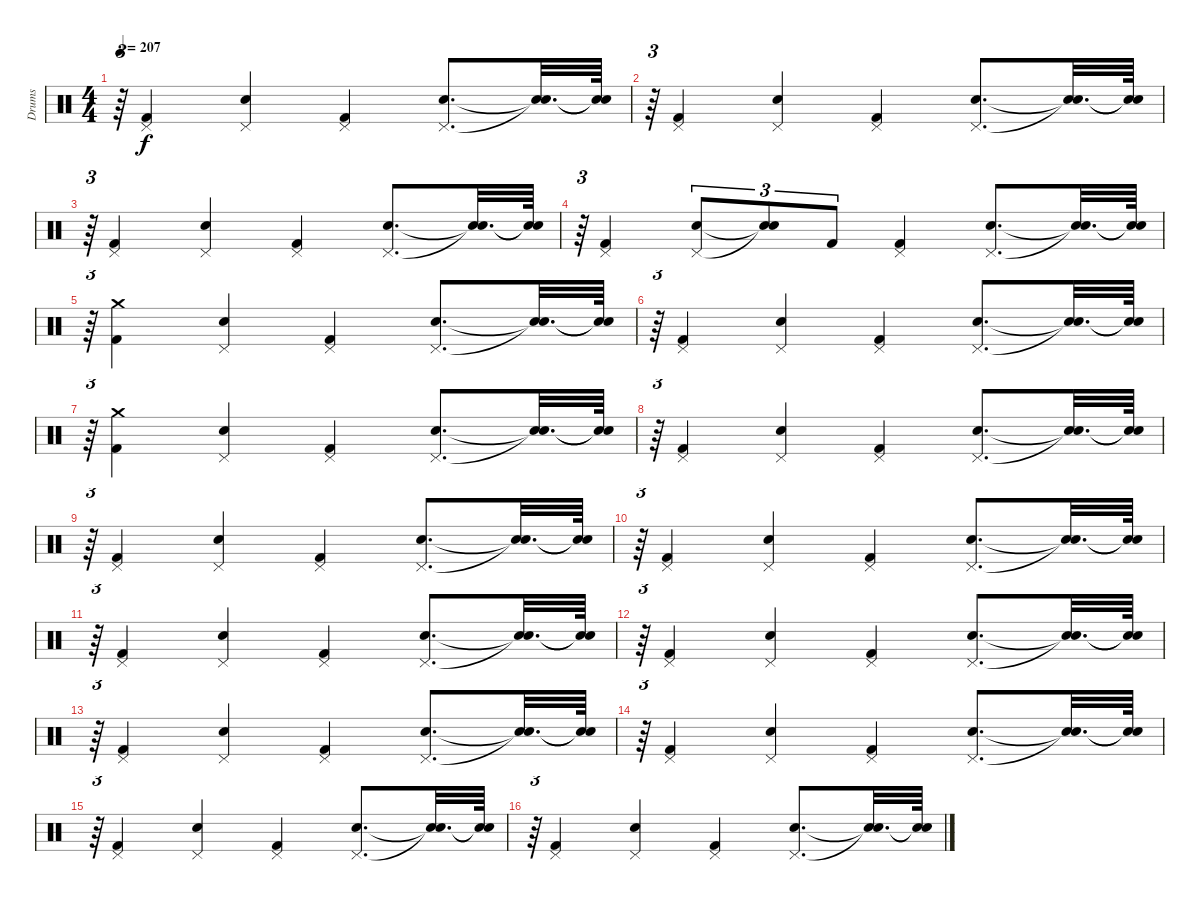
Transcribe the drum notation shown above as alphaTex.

\track ("Drums" "Drums") {instrument percussion}
\staff {score}
\articulation defaults
\ts (4 4)
\tempo 207
\clef neutral
\ks c
r.64{tu (3 2) dy f} ("Pedal Hi-Hat (hit)" "Kick (hit) 2").4 ("Pedal Hi-Hat (hit)" "Snare (hit) 2").4 ("Pedal Hi-Hat (hit)" "Kick (hit) 2").4 ("Pedal Hi-Hat (hit)" "Snare (hit) 2").8{d} ("Snare (hit)"{t} "Snare (hit)"{t}).32{d} ("Snare (hit)"{t} "Snare (hit)"{t}).64 |
r.64{tu (3 2)} ("Pedal Hi-Hat (hit)" "Kick (hit) 2").4 ("Pedal Hi-Hat (hit)" "Snare (hit) 2").4 ("Pedal Hi-Hat (hit)" "Kick (hit) 2").4 ("Pedal Hi-Hat (hit)" "Snare (hit) 2").8{d} ("Snare (hit)"{t} "Snare (hit)"{t}).32{d} ("Snare (hit)"{t} "Snare (hit)"{t}).64 |
r.64{tu (3 2)} ("Pedal Hi-Hat (hit)" "Kick (hit) 2").4 ("Pedal Hi-Hat (hit)" "Snare (hit) 2").4 ("Pedal Hi-Hat (hit)" "Kick (hit) 2").4 ("Pedal Hi-Hat (hit)" "Snare (hit) 2").8{d} ("Snare (hit)"{t} "Snare (hit)"{t}).32{d} ("Snare (hit)"{t} "Snare (hit)"{t}).64 |
r.64{tu (3 2)} ("Pedal Hi-Hat (hit)" "Kick (hit) 2").4 ("Pedal Hi-Hat (hit)" "Snare (hit) 2").8{tu (3 2)} ("Snare (hit)"{t} "Snare (hit)"{t}).8{tu (3 2)} "Kick (hit) 2".8{tu (3 2)} ("Pedal Hi-Hat (hit)" "Kick (hit) 2").4 ("Pedal Hi-Hat (hit)" "Snare (hit) 2").8{d} ("Snare (hit)"{t} "Snare (hit)"{t}).32{d} ("Snare (hit)"{t} "Snare (hit)"{t}).64 |
r.64{tu (3 2)} ("Kick (hit) 2" "Crash medium (hit)").4 ("Pedal Hi-Hat (hit)" "Snare (hit) 2").4 ("Pedal Hi-Hat (hit)" "Kick (hit) 2").4 ("Pedal Hi-Hat (hit)" "Snare (hit) 2").8{d} ("Snare (hit)"{t} "Snare (hit)"{t}).32{d} ("Snare (hit)"{t} "Snare (hit)"{t}).64 |
r.64{tu (3 2)} ("Pedal Hi-Hat (hit)" "Kick (hit) 2").4 ("Pedal Hi-Hat (hit)" "Snare (hit) 2").4 ("Pedal Hi-Hat (hit)" "Kick (hit) 2").4 ("Pedal Hi-Hat (hit)" "Snare (hit) 2").8{d} ("Snare (hit)"{t} "Snare (hit)"{t}).32{d} ("Snare (hit)"{t} "Snare (hit)"{t}).64 |
r.64{tu (3 2)} ("Kick (hit) 2" "Crash medium (hit)").4 ("Pedal Hi-Hat (hit)" "Snare (hit) 2").4 ("Pedal Hi-Hat (hit)" "Kick (hit) 2").4 ("Pedal Hi-Hat (hit)" "Snare (hit) 2").8{d} ("Snare (hit)"{t} "Snare (hit)"{t}).32{d} ("Snare (hit)"{t} "Snare (hit)"{t}).64 |
r.64{tu (3 2)} ("Pedal Hi-Hat (hit)" "Kick (hit) 2").4 ("Pedal Hi-Hat (hit)" "Snare (hit) 2").4 ("Pedal Hi-Hat (hit)" "Kick (hit) 2").4 ("Pedal Hi-Hat (hit)" "Snare (hit) 2").8{d} ("Snare (hit)"{t} "Snare (hit)"{t}).32{d} ("Snare (hit)"{t} "Snare (hit)"{t}).64 |
r.64{tu (3 2)} ("Pedal Hi-Hat (hit)" "Kick (hit) 2").4 ("Pedal Hi-Hat (hit)" "Snare (hit) 2").4 ("Pedal Hi-Hat (hit)" "Kick (hit) 2").4 ("Pedal Hi-Hat (hit)" "Snare (hit) 2").8{d} ("Snare (hit)"{t} "Snare (hit)"{t}).32{d} ("Snare (hit)"{t} "Snare (hit)"{t}).64 |
r.64{tu (3 2)} ("Pedal Hi-Hat (hit)" "Kick (hit) 2").4 ("Pedal Hi-Hat (hit)" "Snare (hit) 2").4 ("Pedal Hi-Hat (hit)" "Kick (hit) 2").4 ("Pedal Hi-Hat (hit)" "Snare (hit) 2").8{d} ("Snare (hit)"{t} "Snare (hit)"{t}).32{d} ("Snare (hit)"{t} "Snare (hit)"{t}).64 |
r.64{tu (3 2)} ("Pedal Hi-Hat (hit)" "Kick (hit) 2").4 ("Pedal Hi-Hat (hit)" "Snare (hit) 2").4 ("Pedal Hi-Hat (hit)" "Kick (hit) 2").4 ("Pedal Hi-Hat (hit)" "Snare (hit) 2").8{d} ("Snare (hit)"{t} "Snare (hit)"{t}).32{d} ("Snare (hit)"{t} "Snare (hit)"{t}).64 |
r.64{tu (3 2)} ("Pedal Hi-Hat (hit)" "Kick (hit) 2").4 ("Pedal Hi-Hat (hit)" "Snare (hit) 2").4 ("Pedal Hi-Hat (hit)" "Kick (hit) 2").4 ("Pedal Hi-Hat (hit)" "Snare (hit) 2").8{d} ("Snare (hit)"{t} "Snare (hit)"{t}).32{d} ("Snare (hit)"{t} "Snare (hit)"{t}).64 |
r.64{tu (3 2)} ("Pedal Hi-Hat (hit)" "Kick (hit) 2").4 ("Pedal Hi-Hat (hit)" "Snare (hit) 2").4 ("Pedal Hi-Hat (hit)" "Kick (hit) 2").4 ("Pedal Hi-Hat (hit)" "Snare (hit) 2").8{d} ("Snare (hit)"{t} "Snare (hit)"{t}).32{d} ("Snare (hit)"{t} "Snare (hit)"{t}).64 |
r.64{tu (3 2)} ("Pedal Hi-Hat (hit)" "Kick (hit) 2").4 ("Pedal Hi-Hat (hit)" "Snare (hit) 2").4 ("Pedal Hi-Hat (hit)" "Kick (hit) 2").4 ("Pedal Hi-Hat (hit)" "Snare (hit) 2").8{d} ("Snare (hit)"{t} "Snare (hit)"{t}).32{d} ("Snare (hit)"{t} "Snare (hit)"{t}).64 |
r.64{tu (3 2)} ("Pedal Hi-Hat (hit)" "Kick (hit) 2").4 ("Pedal Hi-Hat (hit)" "Snare (hit) 2").4 ("Pedal Hi-Hat (hit)" "Kick (hit) 2").4 ("Pedal Hi-Hat (hit)" "Snare (hit) 2").8{d} ("Snare (hit)"{t} "Snare (hit)"{t}).32{d} ("Snare (hit)"{t} "Snare (hit)"{t}).64 |
r.64{tu (3 2)} ("Pedal Hi-Hat (hit)" "Kick (hit) 2").4 ("Pedal Hi-Hat (hit)" "Snare (hit) 2").4 ("Pedal Hi-Hat (hit)" "Kick (hit) 2").4 ("Pedal Hi-Hat (hit)" "Snare (hit) 2").8{d} ("Snare (hit)"{t} "Snare (hit)"{t}).32{d} ("Snare (hit)"{t} "Snare (hit)"{t}).64
